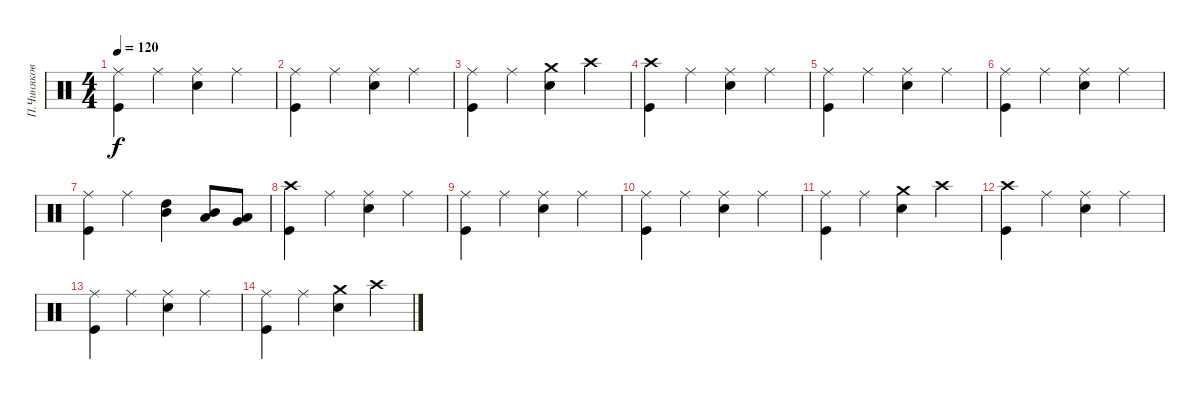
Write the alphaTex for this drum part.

\track ("П.Чиняков" "П.Чиняков") {instrument percussion}
\staff {score}
\articulation defaults
\ts (4 4)
\tempo 120
\clef neutral
\ks c
("Ride (middle)" "Kick (hit)").4{dy f} "Ride (middle)".4 ("Ride (middle)" "Snare (hit) 2").4 "Ride (middle)".4 |
("Ride (middle)" "Kick (hit)").4 "Ride (middle)".4 ("Ride (middle)" "Snare (hit) 2").4 "Ride (middle)".4 |
("Ride (middle)" "Kick (hit)").4 "Ride (middle)".4 ("Crash medium (hit)" "Snare (hit) 2").4 "Crash high (hit)".4 |
("Crash high (hit)" "Kick (hit)").4 "Ride (middle)".4 ("Ride (middle)" "Snare (hit) 2").4 "Ride (middle)".4 |
("Ride (middle)" "Kick (hit)").4 "Ride (middle)".4 ("Ride (middle)" "Snare (hit) 2").4 "Ride (middle)".4 |
("Ride (middle)" "Kick (hit)").4 "Ride (middle)".4 ("Ride (middle)" "Snare (hit) 2").4 "Ride (middle)".4 |
("Ride (middle)" "Kick (hit)").4 "Ride (middle)".4 ("High Tom (hit)" "Mid Tom (hit)").4 ("Mid Tom (hit)" "Low Tom (hit)").8 ("Low Tom (hit)" "Very Low Tom (hit)").8 |
("Crash high (hit)" "Kick (hit)").4 "Ride (middle)".4 ("Ride (middle)" "Snare (hit) 2").4 "Ride (middle)".4 |
("Ride (middle)" "Kick (hit)").4 "Ride (middle)".4 ("Ride (middle)" "Snare (hit) 2").4 "Ride (middle)".4 |
("Ride (middle)" "Kick (hit)").4 "Ride (middle)".4 ("Ride (middle)" "Snare (hit) 2").4 "Ride (middle)".4 |
("Ride (middle)" "Kick (hit)").4{volume 0} "Ride (middle)".4 ("Crash medium (hit)" "Snare (hit) 2").4 "Crash high (hit)".4 |
("Crash high (hit)" "Kick (hit)").4 "Ride (middle)".4 ("Ride (middle)" "Snare (hit) 2").4 "Ride (middle)".4 |
("Ride (middle)" "Kick (hit)").4 "Ride (middle)".4 ("Ride (middle)" "Snare (hit) 2").4 "Ride (middle)".4 |
("Ride (middle)" "Kick (hit)").4 "Ride (middle)".4 ("Crash medium (hit)" "Snare (hit) 2").4 "Crash high (hit)".4
